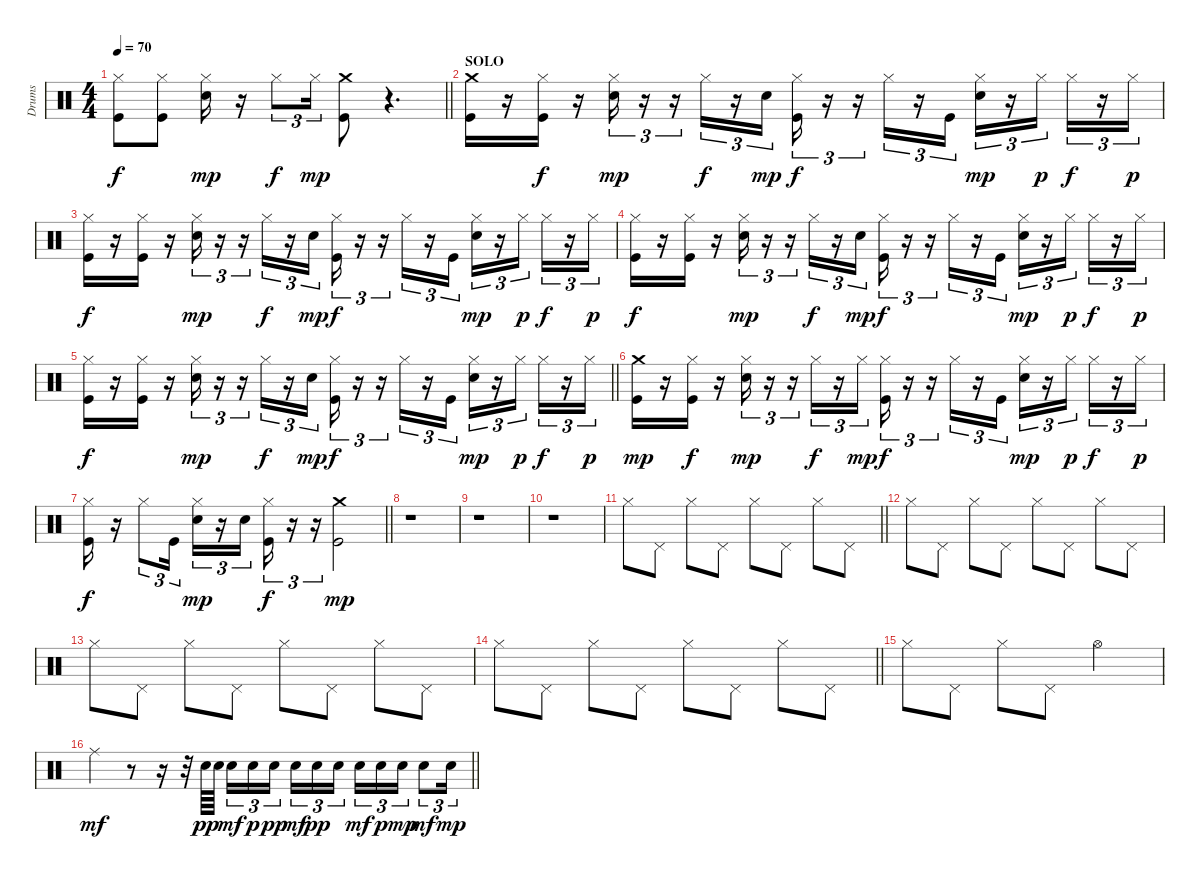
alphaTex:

\track ("Drums" "Drums") {instrument percussion}
\staff {score}
\articulation defaults
\ts (4 4)
\section ("" "")
\tempo 70
\clef neutral
\barLineRight lightlight
\ks c
("Kick (hit)" "Hi-Hat (closed)").8{dy f} ("Kick (hit)" "Hi-Hat (closed)").8 ("Electric Snare (hit)" "Hi-Hat (closed)").16{dy mp} r.16 "Hi-Hat (closed)".8{tu (3 2) dy f} "Hi-Hat (closed)".16{tu (3 2) dy mp} ("Kick (hit)" "Crash medium (hit)").8 r.4{d} |
\section ("" "SOLO")
("Kick (hit)" "Crash medium (hit)").16 r.16 ("Kick (hit)" "Hi-Hat (closed)").16{dy f} r.16 ("Electric Snare (hit)" "Hi-Hat (closed)").16{tu (3 2) dy mp} r.16{tu (3 2)} r.16{tu (3 2)} "Hi-Hat (closed)".16{tu (3 2) dy f} r.16{tu (3 2)} "Electric Snare (hit)".16{tu (3 2) dy mp} ("Kick (hit)" "Hi-Hat (closed)").16{tu (3 2) dy f} r.16{tu (3 2)} r.16{tu (3 2)} "Hi-Hat (closed)".16{tu (3 2)} r.16{tu (3 2)} "Kick (hit)".16{tu (3 2)} ("Electric Snare (hit)" "Hi-Hat (closed)").16{tu (3 2) dy mp} r.16{tu (3 2)} "Hi-Hat (closed)".16{tu (3 2) dy p} "Hi-Hat (closed)".16{tu (3 2) dy f} r.16{tu (3 2)} "Hi-Hat (closed)".16{tu (3 2) dy p} |
("Kick (hit)" "Hi-Hat (closed)").16{dy f} r.16 ("Kick (hit)" "Hi-Hat (closed)").16 r.16 ("Electric Snare (hit)" "Hi-Hat (closed)").16{tu (3 2) dy mp} r.16{tu (3 2)} r.16{tu (3 2)} "Hi-Hat (closed)".16{tu (3 2) dy f} r.16{tu (3 2)} "Electric Snare (hit)".16{tu (3 2) dy mp} ("Kick (hit)" "Hi-Hat (closed)").16{tu (3 2) dy f} r.16{tu (3 2)} r.16{tu (3 2)} "Hi-Hat (closed)".16{tu (3 2)} r.16{tu (3 2)} "Kick (hit)".16{tu (3 2)} ("Electric Snare (hit)" "Hi-Hat (closed)").16{tu (3 2) dy mp} r.16{tu (3 2)} "Hi-Hat (closed)".16{tu (3 2) dy p} "Hi-Hat (closed)".16{tu (3 2) dy f} r.16{tu (3 2)} "Hi-Hat (closed)".16{tu (3 2) dy p} |
("Kick (hit)" "Hi-Hat (closed)").16{dy f} r.16 ("Kick (hit)" "Hi-Hat (closed)").16 r.16 ("Electric Snare (hit)" "Hi-Hat (closed)").16{tu (3 2) dy mp} r.16{tu (3 2)} r.16{tu (3 2)} "Hi-Hat (closed)".16{tu (3 2) dy f} r.16{tu (3 2)} "Electric Snare (hit)".16{tu (3 2) dy mp} ("Kick (hit)" "Hi-Hat (closed)").16{tu (3 2) dy f} r.16{tu (3 2)} r.16{tu (3 2)} "Hi-Hat (closed)".16{tu (3 2)} r.16{tu (3 2)} "Kick (hit)".16{tu (3 2)} ("Electric Snare (hit)" "Hi-Hat (closed)").16{tu (3 2) dy mp} r.16{tu (3 2)} "Hi-Hat (closed)".16{tu (3 2) dy p} "Hi-Hat (closed)".16{tu (3 2) dy f} r.16{tu (3 2)} "Hi-Hat (closed)".16{tu (3 2) dy p} |
\barLineRight lightlight
("Kick (hit)" "Hi-Hat (closed)").16{dy f} r.16 ("Kick (hit)" "Hi-Hat (closed)").16 r.16 ("Electric Snare (hit)" "Hi-Hat (closed)").16{tu (3 2) dy mp} r.16{tu (3 2)} r.16{tu (3 2)} "Hi-Hat (closed)".16{tu (3 2) dy f} r.16{tu (3 2)} "Electric Snare (hit)".16{tu (3 2) dy mp} ("Kick (hit)" "Hi-Hat (closed)").16{tu (3 2) dy f} r.16{tu (3 2)} r.16{tu (3 2)} "Hi-Hat (closed)".16{tu (3 2)} r.16{tu (3 2)} "Kick (hit)".16{tu (3 2)} ("Electric Snare (hit)" "Hi-Hat (closed)").16{tu (3 2) dy mp} r.16{tu (3 2)} "Hi-Hat (closed)".16{tu (3 2) dy p} "Hi-Hat (closed)".16{tu (3 2) dy f} r.16{tu (3 2)} "Hi-Hat (closed)".16{tu (3 2) dy p} |
\section ("" "")
("Kick (hit)" "Crash medium (hit)").16{dy mp} r.16 ("Kick (hit)" "Hi-Hat (closed)").16{dy f} r.16 ("Electric Snare (hit)" "Hi-Hat (closed)").16{tu (3 2) dy mp} r.16{tu (3 2)} r.16{tu (3 2)} "Hi-Hat (closed)".16{tu (3 2) dy f} r.16{tu (3 2)} "Hi-Hat (closed)".16{tu (3 2) dy mp} ("Kick (hit)" "Hi-Hat (closed)").16{tu (3 2) dy f} r.16{tu (3 2)} r.16{tu (3 2)} "Hi-Hat (closed)".16{tu (3 2)} r.16{tu (3 2)} "Kick (hit)".16{tu (3 2)} ("Electric Snare (hit)" "Hi-Hat (closed)").16{tu (3 2) dy mp} r.16{tu (3 2)} "Hi-Hat (closed)".16{tu (3 2) dy p} "Hi-Hat (closed)".16{tu (3 2) dy f} r.16{tu (3 2)} "Hi-Hat (closed)".16{tu (3 2) dy p} |
\barLineRight lightlight
("Kick (hit)" "Hi-Hat (closed)").16{dy f} r.16 "Hi-Hat (closed)".8{tu (3 2)} "Kick (hit)".16{tu (3 2)} ("Electric Snare (hit)" "Hi-Hat (closed)").16{tu (3 2) dy mp} r.16{tu (3 2)} "Electric Snare (hit)".16{tu (3 2)} ("Kick (hit)" "Hi-Hat (closed)").16{tu (3 2) dy f} r.16{tu (3 2)} r.16{tu (3 2)} ("Kick (hit)" "Crash medium (hit)").2{dy mp} |
\section ("" "")
r.1 |
r.1 |
r.1 |
\barLineRight lightlight "Hi-Hat (closed)".8 "Pedal Hi-Hat (hit)".8 "Hi-Hat (closed)".8 "Pedal Hi-Hat (hit)".8 "Hi-Hat (closed)".8 "Pedal Hi-Hat (hit)".8 "Hi-Hat (closed)".8 "Pedal Hi-Hat (hit)".8
|
"Hi-Hat (closed)".8 "Pedal Hi-Hat (hit)".8 "Hi-Hat (closed)".8 "Pedal Hi-Hat (hit)".8 "Hi-Hat (closed)".8 "Pedal Hi-Hat (hit)".8 "Hi-Hat (closed)".8 "Pedal Hi-Hat (hit)".8 |
"Hi-Hat (closed)".8 "Pedal Hi-Hat (hit)".8 "Hi-Hat (closed)".8 "Pedal Hi-Hat (hit)".8 "Hi-Hat (closed)".8 "Pedal Hi-Hat (hit)".8 "Hi-Hat (closed)".8 "Pedal Hi-Hat (hit)".8 |
\barLineRight lightlight "Hi-Hat (closed)".8 "Pedal Hi-Hat (hit)".8 "Hi-Hat (closed)".8 "Pedal Hi-Hat (hit)".8 "Hi-Hat (closed)".8 "Pedal Hi-Hat (hit)".8 "Hi-Hat (closed)".8 "Pedal Hi-Hat (hit)".8
|
\section ("" "")
"Hi-Hat (closed)".8 "Pedal Hi-Hat (hit)".8 "Hi-Hat (closed)".8 "Pedal Hi-Hat (hit)".8 "Hi-Hat (open)".2 |
\barLineRight lightlight "Ride (middle)".4{dy mf}
r.8 r.16 r.32 "Snare (hit) 2".64{dy pp} "Snare (hit) 2".64 "Electric Snare (hit)".16{tu (3 2) dy mf} "Snare (hit) 2".16{tu (3 2) dy p} "Snare (hit) 2".16{tu (3 2) dy pp beam splitsecondary} "Electric Snare (hit)".16{tu (3 2) dy mf} "Snare (hit) 2".16{tu (3 2) dy pp} "Snare (hit) 2".16{tu (3 2)} "Electric Snare (hit)".16{tu (3 2) dy mf} "Snare (hit) 2".16{tu (3 2) dy p} "Electric Snare (hit)".16{tu (3 2) dy mp} "Electric Snare (hit)".8{tu (3 2) dy mf} "Electric Snare (hit)".16{tu (3 2) dy mp}
